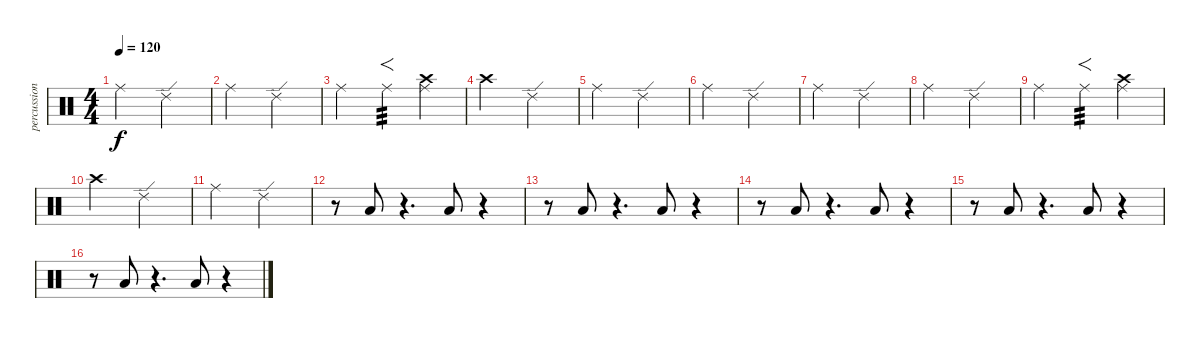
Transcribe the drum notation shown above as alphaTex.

\track ("percussion" "percussion") {instrument percussion}
\staff {score}
\articulation defaults
\ts (4 4)
\tempo 120
\clef neutral
\ks c "Ride (middle)".2{dy f} "Ride (edge) 2".2
|
"Ride (middle)".2 "Ride (edge) 2".2 |
"Ride (middle)".2 "Ride (middle)".4{f tp 3} ("Ride (middle)" "Crash high (hit)").4 |
"Crash high (hit)".2 "Ride (edge) 2".2 |
"Ride (middle)".2 "Ride (edge) 2".2 |
"Ride (middle)".2 "Ride (edge) 2".2 |
"Ride (middle)".2 "Ride (edge) 2".2 |
"Ride (middle)".2 "Ride (edge) 2".2 |
"Ride (middle)".2 "Ride (middle)".4{f tp 3} ("Ride (middle)" "Crash high (hit)").4 |
"Crash high (hit)".2 "Ride (edge) 2".2 |
"Ride (middle)".2 "Ride (edge) 2".2 |
r.8 "Low Floor Tom (hit)".8 r.4{d} "Low Floor Tom (hit)".8 r.4 |
r.8 "Low Floor Tom (hit)".8 r.4{d} "Low Floor Tom (hit)".8 r.4 |
r.8 "Low Floor Tom (hit)".8 r.4{d} "Low Floor Tom (hit)".8 r.4 |
r.8 "Low Floor Tom (hit)".8 r.4{d} "Low Floor Tom (hit)".8 r.4 |
r.8 "Low Floor Tom (hit)".8 r.4{d} "Low Floor Tom (hit)".8 r.4
